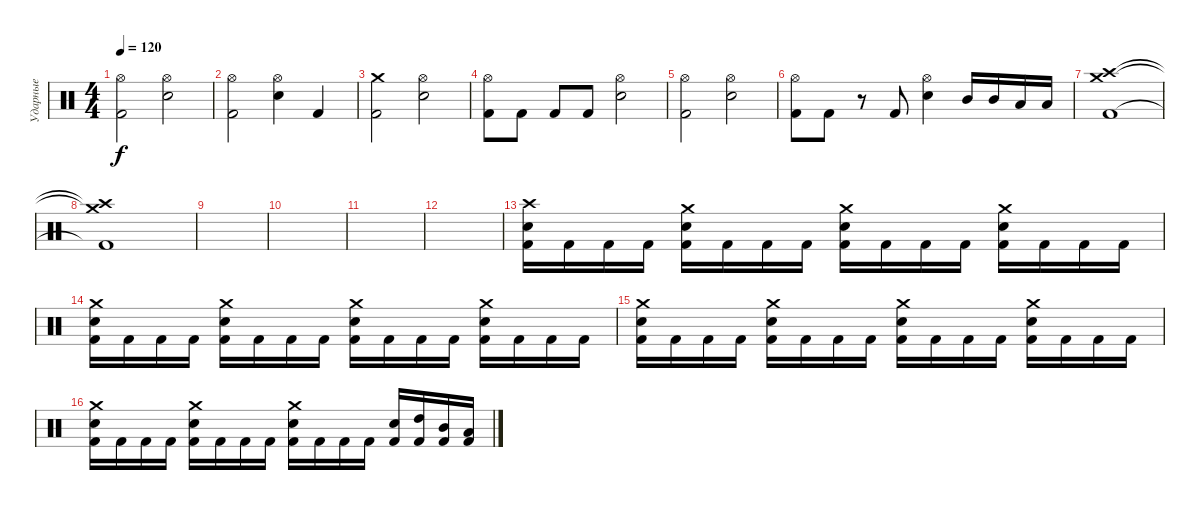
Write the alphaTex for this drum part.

\track ("Ударные" "Ударные") {instrument percussion}
\staff {score}
\articulation defaults
\ts (4 4)
\tempo 120
\clef neutral
\ks c
("Hi-Hat (open)" "Kick (hit) 2").2{dy f} ("Hi-Hat (open)" "Electric Snare (hit)").2 |
("Hi-Hat (open)" "Kick (hit) 2").2 ("Hi-Hat (open)" "Electric Snare (hit)").4 "Kick (hit) 2".4 |
("Crash medium (hit)" "Kick (hit) 2").2 ("Hi-Hat (open)" "Electric Snare (hit)").2 |
("Hi-Hat (open)" "Kick (hit) 2").8 "Kick (hit) 2".8 "Kick (hit) 2".8 "Kick (hit) 2".8 ("Hi-Hat (open)" "Electric Snare (hit)").2 |
("Hi-Hat (open)" "Kick (hit) 2").2 ("Hi-Hat (open)" "Electric Snare (hit)").2 |
("Hi-Hat (open)" "Kick (hit) 2").8 "Kick (hit) 2".8 r.8 "Kick (hit) 2".8 ("Hi-Hat (open)" "Electric Snare (hit)").4 "Mid Tom (hit)".16 "Mid Tom (hit)".16 "Low Tom (hit)".16 "Low Tom (hit)".16 |
("Crash medium (hit)" "Crash high (hit)" "Kick (hit) 2").1 |
("Crash medium (hit)"{t} "Crash high (hit)"{t} "Kick (hit) 2"{t}).1 |
|
|
|
|
("Crash high (hit)" "Electric Snare (hit)" "Kick (hit) 2").16 "Kick (hit) 2".16 "Kick (hit) 2".16 "Kick (hit) 2".16 ("Crash medium (hit)" "Electric Snare (hit)" "Kick (hit) 2").16 "Kick (hit) 2".16 "Kick (hit) 2".16 "Kick (hit) 2".16 ("Crash medium (hit)" "Electric Snare (hit)" "Kick (hit) 2").16 "Kick (hit) 2".16 "Kick (hit) 2".16 "Kick (hit) 2".16 ("Crash medium (hit)" "Electric Snare (hit)" "Kick (hit) 2").16 "Kick (hit) 2".16 "Kick (hit) 2".16 "Kick (hit) 2".16 |
("Crash medium (hit)" "Electric Snare (hit)" "Kick (hit) 2").16 "Kick (hit) 2".16 "Kick (hit) 2".16 "Kick (hit) 2".16 ("Crash medium (hit)" "Electric Snare (hit)" "Kick (hit) 2").16 "Kick (hit) 2".16 "Kick (hit) 2".16 "Kick (hit) 2".16 ("Crash medium (hit)" "Electric Snare (hit)" "Kick (hit) 2").16 "Kick (hit) 2".16 "Kick (hit) 2".16 "Kick (hit) 2".16 ("Crash medium (hit)" "Electric Snare (hit)" "Kick (hit) 2").16 "Kick (hit) 2".16 "Kick (hit) 2".16 "Kick (hit) 2".16 |
("Crash medium (hit)" "Electric Snare (hit)" "Kick (hit) 2").16 "Kick (hit) 2".16 "Kick (hit) 2".16 "Kick (hit) 2".16 ("Crash medium (hit)" "Electric Snare (hit)" "Kick (hit) 2").16 "Kick (hit) 2".16 "Kick (hit) 2".16 "Kick (hit) 2".16 ("Crash medium (hit)" "Electric Snare (hit)" "Kick (hit) 2").16 "Kick (hit) 2".16 "Kick (hit) 2".16 "Kick (hit) 2".16 ("Crash medium (hit)" "Electric Snare (hit)" "Kick (hit) 2").16 "Kick (hit) 2".16 "Kick (hit) 2".16 "Kick (hit) 2".16 |
("Crash medium (hit)" "Electric Snare (hit)" "Kick (hit) 2").16 "Kick (hit) 2".16 "Kick (hit) 2".16 "Kick (hit) 2".16 ("Crash medium (hit)" "Electric Snare (hit)" "Kick (hit) 2").16 "Kick (hit) 2".16 "Kick (hit) 2".16 "Kick (hit) 2".16 ("Crash medium (hit)" "Electric Snare (hit)" "Kick (hit) 2").16 "Kick (hit) 2".16 "Kick (hit) 2".16 "Kick (hit) 2".16 ("Electric Snare (hit)" "Kick (hit) 2").16 ("High Tom (hit)" "Kick (hit) 2").16 ("Mid Tom (hit)" "Kick (hit) 2").16 ("Low Tom (hit)" "Kick (hit) 2").16
